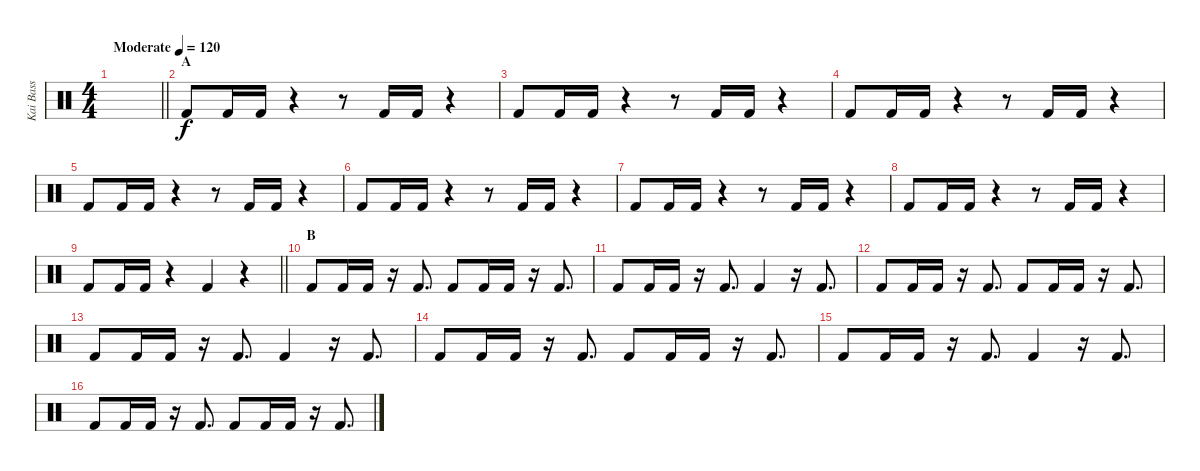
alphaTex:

\track ("Kai Bass" "Kai Bass") {instrument percussion}
\staff {score}
\articulation defaults
\ts (4 4)
\tempo (120 "Moderate")
\clef neutral
\barLineRight lightlight
\ks c
|
\section ("" "A")
"Kick (hit) 2".8 "Kick (hit) 2".16 "Kick (hit) 2".16 r.4 r.8 "Kick (hit) 2".16 "Kick (hit) 2".16 r.4 |
"Kick (hit) 2".8 "Kick (hit) 2".16 "Kick (hit) 2".16 r.4 r.8 "Kick (hit) 2".16 "Kick (hit) 2".16 r.4 |
"Kick (hit) 2".8 "Kick (hit) 2".16 "Kick (hit) 2".16 r.4 r.8 "Kick (hit) 2".16 "Kick (hit) 2".16 r.4 |
"Kick (hit) 2".8 "Kick (hit) 2".16 "Kick (hit) 2".16 r.4 r.8 "Kick (hit) 2".16 "Kick (hit) 2".16 r.4 |
"Kick (hit) 2".8 "Kick (hit) 2".16 "Kick (hit) 2".16 r.4 r.8 "Kick (hit) 2".16 "Kick (hit) 2".16 r.4 |
"Kick (hit) 2".8 "Kick (hit) 2".16 "Kick (hit) 2".16 r.4 r.8 "Kick (hit) 2".16 "Kick (hit) 2".16 r.4 |
"Kick (hit) 2".8 "Kick (hit) 2".16 "Kick (hit) 2".16 r.4 r.8 "Kick (hit) 2".16 "Kick (hit) 2".16 r.4 |
\barLineRight lightlight "Kick (hit) 2".8 "Kick (hit) 2".16 "Kick (hit) 2".16
r.4 "Kick (hit) 2".4 r.4 |
\section ("" "B")
"Kick (hit) 2".8 "Kick (hit) 2".16 "Kick (hit) 2".16 r.16 "Kick (hit) 2".8{d} "Kick (hit) 2".8 "Kick (hit) 2".16 "Kick (hit) 2".16 r.16 "Kick (hit) 2".8{d} |
"Kick (hit) 2".8 "Kick (hit) 2".16 "Kick (hit) 2".16 r.16 "Kick (hit) 2".8{d} "Kick (hit) 2".4 r.16 "Kick (hit) 2".8{d} |
"Kick (hit) 2".8 "Kick (hit) 2".16 "Kick (hit) 2".16 r.16 "Kick (hit) 2".8{d} "Kick (hit) 2".8 "Kick (hit) 2".16 "Kick (hit) 2".16 r.16 "Kick (hit) 2".8{d} |
"Kick (hit) 2".8 "Kick (hit) 2".16 "Kick (hit) 2".16 r.16 "Kick (hit) 2".8{d} "Kick (hit) 2".4 r.16 "Kick (hit) 2".8{d} |
"Kick (hit) 2".8 "Kick (hit) 2".16 "Kick (hit) 2".16 r.16 "Kick (hit) 2".8{d} "Kick (hit) 2".8 "Kick (hit) 2".16 "Kick (hit) 2".16 r.16 "Kick (hit) 2".8{d} |
"Kick (hit) 2".8 "Kick (hit) 2".16 "Kick (hit) 2".16 r.16 "Kick (hit) 2".8{d} "Kick (hit) 2".4 r.16 "Kick (hit) 2".8{d} |
"Kick (hit) 2".8 "Kick (hit) 2".16 "Kick (hit) 2".16 r.16 "Kick (hit) 2".8{d} "Kick (hit) 2".8 "Kick (hit) 2".16 "Kick (hit) 2".16 r.16 "Kick (hit) 2".8{d}
